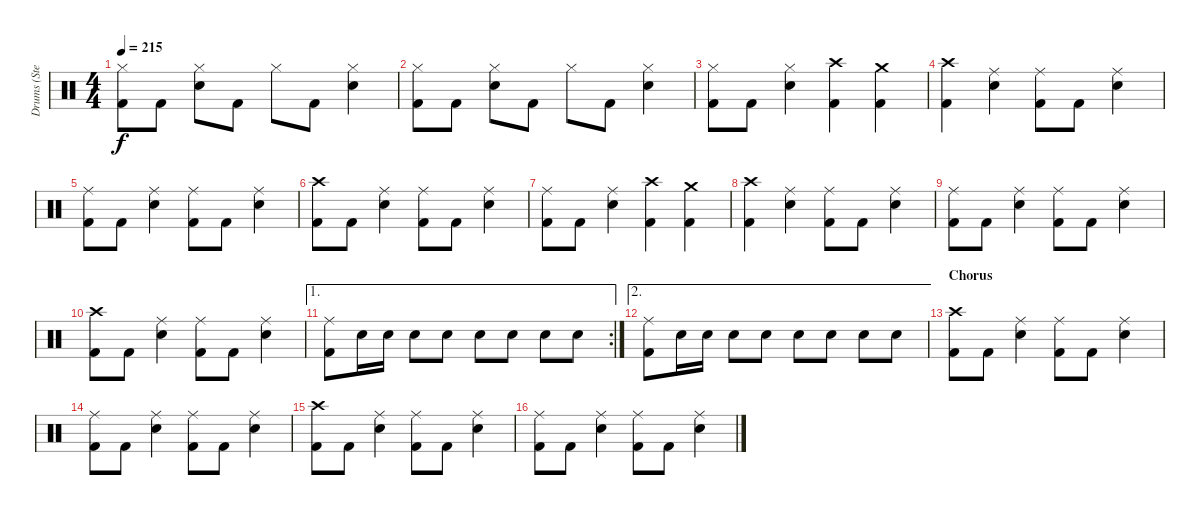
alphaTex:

\track ("Drums (Steven)" "Drums (Ste") {instrument percussion}
\staff {score}
\articulation defaults
\ts (4 4)
\tempo 215
\clef neutral
\ks c
("Hi-Hat (closed)" "Kick (hit) 2").8{dy f} "Kick (hit) 2".8 ("Hi-Hat (closed)" "Snare (hit) 2").8 "Kick (hit) 2".8 "Hi-Hat (closed)".8 "Kick (hit) 2".8 ("Hi-Hat (closed)" "Snare (hit) 2").4 |
("Hi-Hat (closed)" "Kick (hit) 2").8 "Kick (hit) 2".8 ("Hi-Hat (closed)" "Snare (hit) 2").8 "Kick (hit) 2".8 "Hi-Hat (closed)".8 "Kick (hit) 2".8 ("Hi-Hat (closed)" "Snare (hit) 2").4 |
("Hi-Hat (closed)" "Kick (hit) 2").8 "Kick (hit) 2".8 ("Hi-Hat (closed)" "Snare (hit) 2").4 ("Crash high (hit)" "Kick (hit) 2").4 ("Crash medium (hit)" "Kick (hit) 2").4 |
("Crash high (hit)" "Kick (hit) 2").4 ("Ride (middle)" "Snare (hit) 2").4 ("Ride (middle)" "Kick (hit) 2").8 "Kick (hit) 2".8 ("Ride (middle)" "Snare (hit) 2").4 |
("Ride (middle)" "Kick (hit) 2").8 "Kick (hit) 2".8 ("Ride (middle)" "Snare (hit) 2").4 ("Ride (middle)" "Kick (hit) 2").8 "Kick (hit) 2".8 ("Ride (middle)" "Snare (hit) 2").4 |
("Crash high (hit)" "Kick (hit) 2").8 "Kick (hit) 2".8 ("Ride (middle)" "Snare (hit) 2").4 ("Ride (middle)" "Kick (hit) 2").8 "Kick (hit) 2".8 ("Ride (middle)" "Snare (hit) 2").4 |
("Ride (middle)" "Kick (hit) 2").8 "Kick (hit) 2".8 ("Ride (middle)" "Snare (hit) 2").4 ("Crash high (hit)" "Kick (hit) 2").4 ("Crash medium (hit)" "Kick (hit) 2").4 |
("Crash high (hit)" "Kick (hit) 2").4 ("Ride (middle)" "Snare (hit) 2").4 ("Ride (middle)" "Kick (hit) 2").8 "Kick (hit) 2".8 ("Ride (middle)" "Snare (hit) 2").4 |
("Ride (middle)" "Kick (hit) 2").8 "Kick (hit) 2".8 ("Ride (middle)" "Snare (hit) 2").4 ("Ride (middle)" "Kick (hit) 2").8 "Kick (hit) 2".8 ("Ride (middle)" "Snare (hit) 2").4 |
("Crash high (hit)" "Kick (hit) 2").8 "Kick (hit) 2".8 ("Ride (middle)" "Snare (hit) 2").4 ("Ride (middle)" "Kick (hit) 2").8 "Kick (hit) 2".8 ("Ride (middle)" "Snare (hit) 2").4 |
\ae 1
\rc 2
("Ride (middle)" "Kick (hit) 2").8 "Snare (hit) 2".16 "Snare (hit) 2".16 "Snare (hit) 2".8 "Snare (hit) 2".8 "Snare (hit) 2".8 "Snare (hit) 2".8 "Snare (hit) 2".8 "Snare (hit) 2".8 |
\ae 2
("Ride (middle)" "Kick (hit) 2").8 "Snare (hit) 2".16 "Snare (hit) 2".16 "Snare (hit) 2".8 "Snare (hit) 2".8 "Snare (hit) 2".8 "Snare (hit) 2".8 "Snare (hit) 2".8 "Snare (hit) 2".8 |
\section ("" "Chorus")
("Crash high (hit)" "Kick (hit) 2").8 "Kick (hit) 2".8 ("Ride (middle)" "Snare (hit) 2").4 ("Ride (middle)" "Kick (hit) 2").8 "Kick (hit) 2".8 ("Ride (middle)" "Snare (hit) 2").4 |
("Ride (middle)" "Kick (hit) 2").8 "Kick (hit) 2".8 ("Ride (middle)" "Snare (hit) 2").4 ("Ride (middle)" "Kick (hit) 2").8 "Kick (hit) 2".8 ("Ride (middle)" "Snare (hit) 2").4 |
("Crash high (hit)" "Kick (hit) 2").8 "Kick (hit) 2".8 ("Ride (middle)" "Snare (hit) 2").4 ("Ride (middle)" "Kick (hit) 2").8 "Kick (hit) 2".8 ("Ride (middle)" "Snare (hit) 2").4 |
("Ride (middle)" "Kick (hit) 2").8 "Kick (hit) 2".8 ("Ride (middle)" "Snare (hit) 2").4 ("Ride (middle)" "Kick (hit) 2").8 "Kick (hit) 2".8 ("Ride (middle)" "Snare (hit) 2").4
